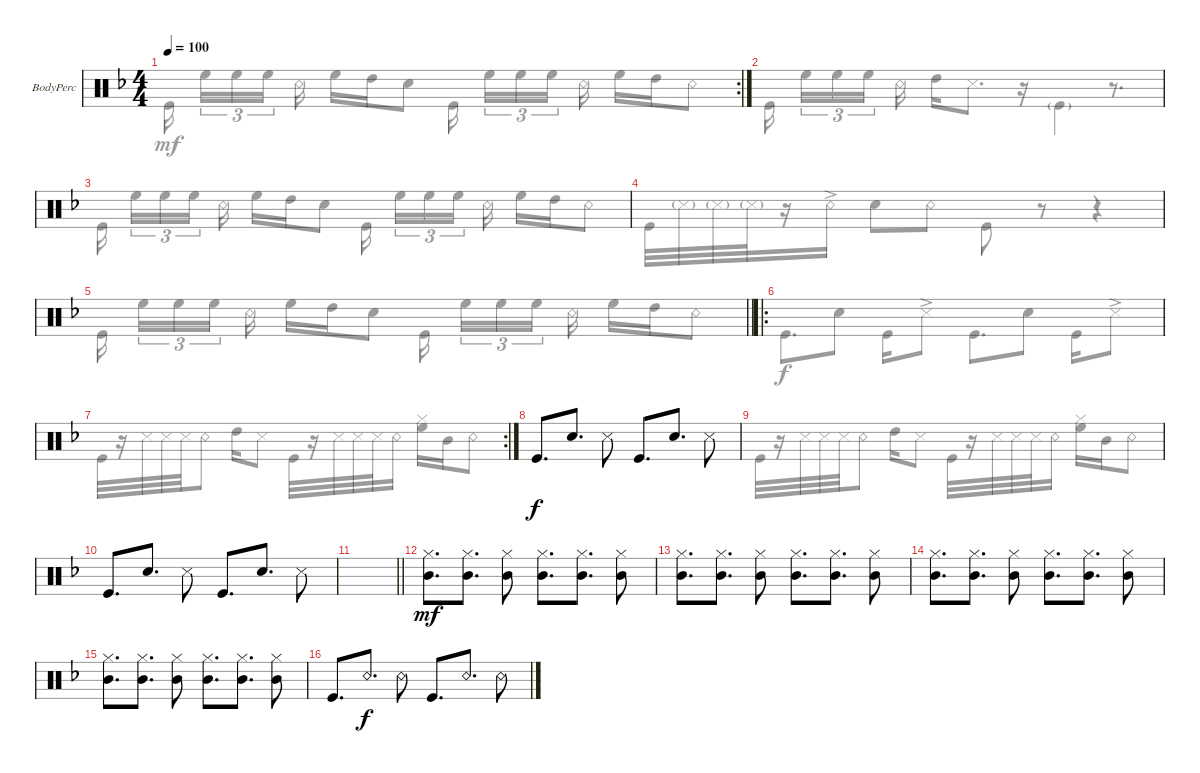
\defaultSystemsLayout 4
\firstSystemTrackNameOrientation horizontal
\otherSystemsTrackNameOrientation horizontal
\track ("Percussion" "BodyPerc") {instrument percussion}
\staff {score}
\articulation defaults
\voice
\rc 2
\ts (4 4)
\tempo 100
\clef neutral
\ks dminor
|
|
\scale
0.478997 |
\scale
0.521205 |
\scale
0.55496
\barLineRight lightlight
|
\ro
\scale
0.445032 |
\rc 2
|
"Kick (hit)".8{d} "Snare (hit) 2".8{d} "Snare (side stick) 3".8 "Kick (hit)".8{d} "Snare (hit) 2".8{d} "Snare (side stick) 3".8 |
|
"Kick (hit)".8{d} "Snare (hit) 2".8{d} "Snare (side stick) 3".8 "Kick (hit)".8{d} "Snare (hit) 2".8{d} "Snare (side stick) 3".8 |
\barLineRight lightlight
|
\scale
0.352249 ("Mid Tom (hit)" "Hi-Hat (closed)").8{d dy mf} ("Mid Tom (hit)" "Hi-Hat (closed)").8{d} ("Mid Tom (hit)" "Hi-Hat (closed)").8 ("Mid Tom (hit)" "Hi-Hat (closed)").8{d} ("Mid Tom (hit)" "Hi-Hat (closed)").8{d} ("Mid Tom (hit)" "Hi-Hat (closed)").8 |
\scale
0.376455 ("Mid Tom (hit)" "Hi-Hat (closed)").8{d} ("Mid Tom (hit)" "Hi-Hat (closed)").8{d} ("Mid Tom (hit)" "Hi-Hat (closed)").8 ("Mid Tom (hit)" "Hi-Hat (closed)").8{d} ("Mid Tom (hit)" "Hi-Hat (closed)").8{d} ("Mid Tom (hit)" "Hi-Hat (closed)").8 |
\scale
0.271311 ("Mid Tom (hit)" "Hi-Hat (closed)").8{d} ("Mid Tom (hit)" "Hi-Hat (closed)").8{d} ("Mid Tom (hit)" "Hi-Hat (closed)").8 ("Mid Tom (hit)" "Hi-Hat (closed)").8{d} ("Mid Tom (hit)" "Hi-Hat (closed)").8{d} ("Mid Tom (hit)" "Hi-Hat (closed)").8 |
("Mid Tom (hit)" "Hi-Hat (closed)").8{d} ("Mid Tom (hit)" "Hi-Hat (closed)").8{d} ("Mid Tom (hit)" "Hi-Hat (closed)").8 ("Mid Tom (hit)" "Hi-Hat (closed)").8{d} ("Mid Tom (hit)" "Hi-Hat (closed)").8{d} ("Mid Tom (hit)" "Hi-Hat (closed)").8 |
"Kick (hit)".8{d} "Snare (rim shot)".8{d dy f} "Snare (rim shot)".8 "Kick (hit)".8{d} "Snare (rim shot)".8{d} "Snare (rim shot)".8
\voice
\clef neutral
\ottava regular
\simile none
\ks dminor "Kick (hit)".16{dy mf} "High Floor Tom (hit)".16{tu (3 2)} "High Floor Tom (hit)".16{tu (3 2)} "High Floor Tom (hit)".16{tu (3 2)} "Snare (rim shot)".16 "High Floor Tom (hit)".16 "High Tom (hit)".16 "Snare (hit) 2".8 "Kick (hit)".16 "High Floor Tom (hit)".16{tu (3 2)} "High Floor Tom (hit)".16{tu (3 2)} "High Floor Tom (hit)".16{tu (3 2)} "Snare (rim shot)".16 "High Floor Tom (hit)".16 "High Tom (hit)".16 "Snare (rim shot)".8
|
"Kick (hit)".16 "High Floor Tom (hit)".16{tu (3 2)} "High Floor Tom (hit)".16{tu (3 2)} "High Floor Tom (hit)".16{tu (3 2)} "Snare (rim shot)".16 "High Tom (hit)".16 "Snare (side stick) 3".8{d} r.16 "Kick (hit)"{g}.4 r.8{d} |
"Kick (hit)".16 "High Floor Tom (hit)".16{tu (3 2)} "High Floor Tom (hit)".16{tu (3 2)} "High Floor Tom (hit)".16{tu (3 2)} "Snare (rim shot)".16 "High Floor Tom (hit)".16 "High Tom (hit)".16 "Snare (hit) 2".8 "Kick (hit)".16 "High Floor Tom (hit)".16{tu (3 2)} "High Floor Tom (hit)".16{tu (3 2)} "High Floor Tom (hit)".16{tu (3 2)} "Snare (rim shot)".16 "High Floor Tom (hit)".16 "High Tom (hit)".16 "Snare (rim shot)".8 |
"Kick (hit)".32 "Snare (side stick) 3"{g}.32 "Snare (side stick) 3"{g}.32 "Snare (side stick) 3"{g}.32 r.16 "Snare (rim shot)"{ac}.16 "Snare (hit) 2".8 "Snare (rim shot)".8 "Kick (hit)".8 r.8 r.4 |
\barLineRight lightlight "Kick (hit)".16 "High Floor Tom (hit)".16{tu (3 2)} "High Floor Tom (hit)".16{tu (3 2)} "High Floor Tom (hit)".16{tu (3 2)} "Snare (rim shot)".16 "High Floor Tom (hit)".16 "High Tom (hit)".16 "Snare (hit) 2".8 "Kick (hit)".16 "High Floor Tom (hit)".16{tu (3 2)} "High Floor Tom (hit)".16{tu (3 2)} "High Floor Tom (hit)".16{tu (3 2)} "Snare (rim shot)".16 "High Floor Tom (hit)".16 "High Tom (hit)".16 "Snare (rim shot)".8
|
"Kick (hit)".8{d dy f} "Snare (hit) 2".8 "Kick (hit)".16 "Snare (side stick) 3"{ac}.8 "Kick (hit)".8{d} "Snare (hit) 2".8 "Kick (hit)".16 "Snare (side stick) 3"{ac}.8 |
"Kick (hit)".32 r.16 "Snare (side stick) 3".32 "Snare (side stick) 3".32 "Snare (side stick) 3".32 "Snare (rim shot)".8 "High Tom (hit)".16 "Snare (side stick) 3".8 "Kick (hit)".32 r.16 "Snare (side stick) 3".32 "Snare (side stick) 3".32 "Snare (side stick) 3".32 "Snare (rim shot)".16 ("High Floor Tom (hit)" "Hi-Hat (closed)").16 "Mid Tom (hit)".16 "Snare (rim shot)".8 |
|
"Kick (hit)".32 r.16 "Snare (side stick) 3".32 "Snare (side stick) 3".32 "Snare (side stick) 3".32 "Snare (rim shot)".8 "High Tom (hit)".16 "Snare (side stick) 3".8 "Kick (hit)".32 r.16 "Snare (side stick) 3".32 "Snare (side stick) 3".32 "Snare (side stick) 3".32 "Snare (rim shot)".16 ("High Floor Tom (hit)" "Hi-Hat (closed)").16 "Mid Tom (hit)".16 "Snare (rim shot)".8 |
|
\barLineRight lightlight
|
|
|
|
|
